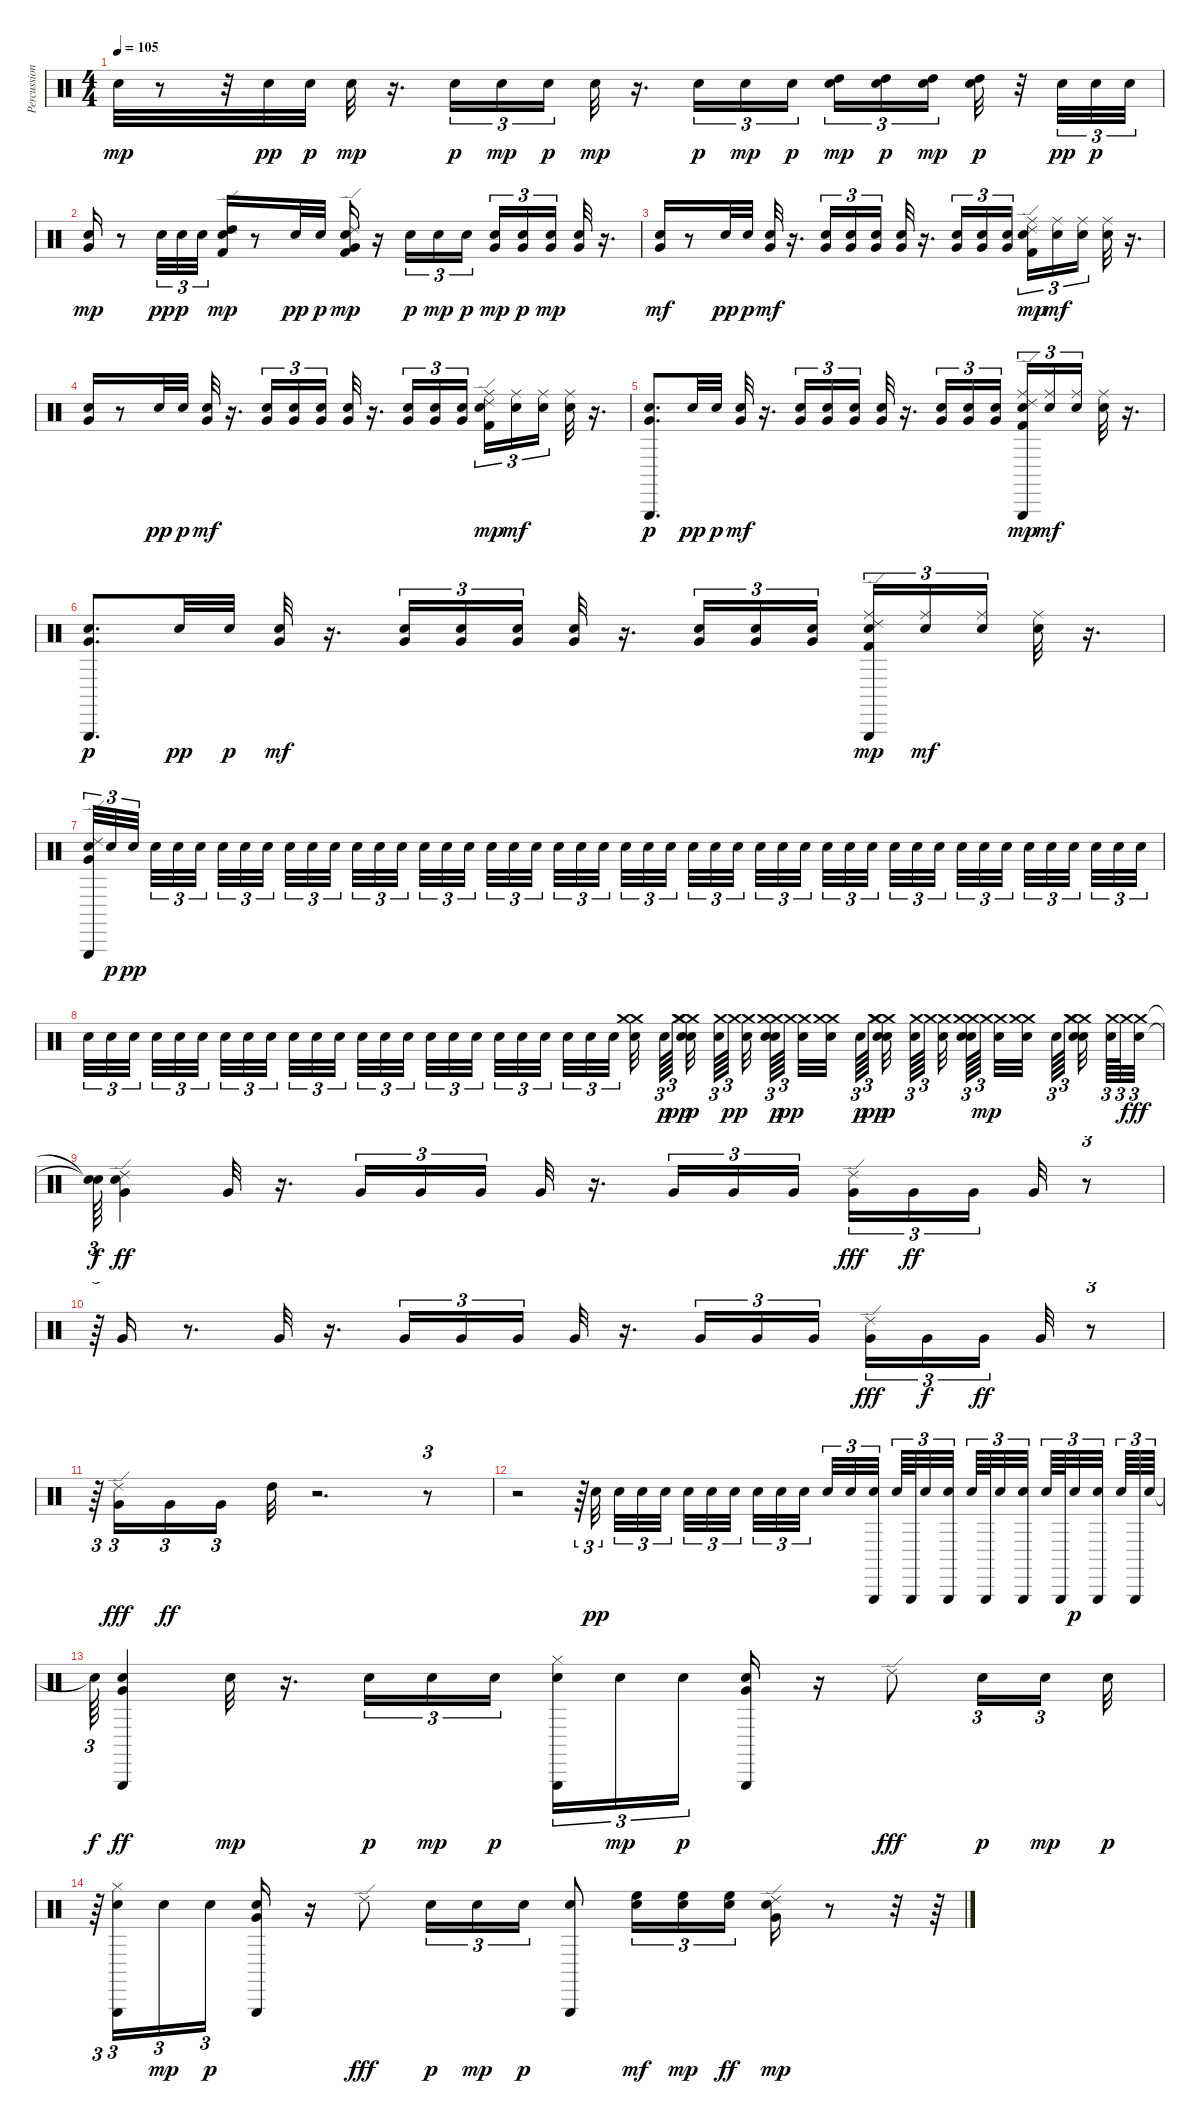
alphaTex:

\track ("Percussion" "Percussion") {instrument percussion}
\staff {score}
\articulation defaults
\ts (4 4)
\tempo 105
\clef neutral
\ks c "Snare (hit) 2".32{dy mp}
r.8 r.32 "Snare (hit) 2".32{dy pp} "Snare (hit) 2".32{dy p} "Snare (hit) 2".32{dy mp} r.16{d} "Snare (hit) 2".16{tu (3 2) dy p} "Snare (hit) 2".16{tu (3 2) dy mp} "Snare (hit) 2".16{tu (3 2) dy p} "Snare (hit) 2".32{dy mp} r.16{d} "Snare (hit) 2".16{tu (3 2) dy p} "Snare (hit) 2".16{tu (3 2) dy mp} "Snare (hit) 2".16{tu (3 2) dy p} ("High Tom (hit)" "Snare (hit) 2").16{tu (3 2) dy mp} ("High Tom (hit)" "Snare (hit) 2").16{tu (3 2) dy p} ("High Tom (hit)" "Snare (hit) 2").16{tu (3 2) dy mp beam splitsecondary} ("High Tom (hit)" "Snare (hit) 2").32{dy p} r.32 "Snare (hit) 2".32{tu (3 2) dy pp} "Snare (hit) 2".32{tu (3 2) dy p} "Snare (hit) 2".32{tu (3 2)} |
("Very Low Tom (hit)" "Snare (hit) 2").16{dy mp} r.8 "Snare (hit) 2".32{tu (3 2) dy pp} "Snare (hit) 2".32{tu (3 2) dy p} "Snare (hit) 2".32{tu (3 2)} ("High Tom (hit)" "Ride (edge) 2" "Snare (hit) 2" "Kick (hit) 2").16{dy mp} r.8 "Snare (hit) 2".32{dy pp} "Snare (hit) 2".32{dy p} ("Very Low Tom (hit)" "Ride (edge) 2" "Kick (hit) 2" "Snare (hit) 2").16{dy mp} r.16 "Snare (hit) 2".16{tu (3 2) dy p} "Snare (hit) 2".16{tu (3 2) dy mp} "Snare (hit) 2".16{tu (3 2) dy p} ("Very Low Tom (hit)" "Snare (hit) 2").16{tu (3 2) dy mp} ("Very Low Tom (hit)" "Snare (hit) 2").16{tu (3 2) dy p} ("Very Low Tom (hit)" "Snare (hit) 2").16{tu (3 2) dy mp beam splitsecondary} ("Very Low Tom (hit)" "Snare (hit) 2").32 r.16{d} |
("Snare (hit) 2" "Very Low Tom (hit)").16{dy mf} r.8 "Snare (hit) 2".32{dy pp} "Snare (hit) 2".32{dy p} ("Snare (hit) 2" "Very Low Tom (hit)").32{dy mf} r.16{d} ("Snare (hit) 2" "Very Low Tom (hit)").16{tu (3 2)} ("Snare (hit) 2" "Very Low Tom (hit)").16{tu (3 2)} ("Snare (hit) 2" "Very Low Tom (hit)").16{tu (3 2)} ("Snare (hit) 2" "Very Low Tom (hit)").32 r.16{d} ("Snare (hit) 2" "Very Low Tom (hit)").16{tu (3 2)} ("Snare (hit) 2" "Very Low Tom (hit)").16{tu (3 2)} ("Snare (hit) 2" "Very Low Tom (hit)").16{tu (3 2)} ("Snare (hit) 2" "Ride (edge) 2" "Ride (middle)" "Kick (hit) 2").16{tu (3 2) dy mp} ("Snare (hit) 2" "Ride (middle)").16{tu (3 2) dy mf} ("Snare (hit) 2" "Ride (middle)").16{tu (3 2) beam splitsecondary} ("Snare (hit) 2" "Ride (middle)").32 r.16{d} |
("Snare (hit) 2" "Very Low Tom (hit)").16 r.8 "Snare (hit) 2".32{dy pp} "Snare (hit) 2".32{dy p} ("Snare (hit) 2" "Very Low Tom (hit)").32{dy mf} r.16{d} ("Snare (hit) 2" "Very Low Tom (hit)").16{tu (3 2)} ("Snare (hit) 2" "Very Low Tom (hit)").16{tu (3 2)} ("Snare (hit) 2" "Very Low Tom (hit)").16{tu (3 2)} ("Snare (hit) 2" "Very Low Tom (hit)").32 r.16{d} ("Snare (hit) 2" "Very Low Tom (hit)").16{tu (3 2)} ("Snare (hit) 2" "Very Low Tom (hit)").16{tu (3 2)} ("Snare (hit) 2" "Very Low Tom (hit)").16{tu (3 2)} ("Snare (hit) 2" "Ride (edge) 2" "Ride (middle)" "Kick (hit) 2").16{tu (3 2) dy mp} ("Snare (hit) 2" "Ride (middle)").16{tu (3 2) dy mf} ("Snare (hit) 2" "Ride (middle)").16{tu (3 2) beam splitsecondary} ("Snare (hit) 2" "Ride (middle)").32 r.16{d} |
("Snare (hit) 2" "Very Low Tom (hit)" "Triangle (hit)").8{d dy p} "Snare (hit) 2".32{dy pp} "Snare (hit) 2".32{dy p} ("Snare (hit) 2" "Very Low Tom (hit)").32{dy mf} r.16{d} ("Snare (hit) 2" "Very Low Tom (hit)").16{tu (3 2)} ("Snare (hit) 2" "Very Low Tom (hit)").16{tu (3 2)} ("Snare (hit) 2" "Very Low Tom (hit)").16{tu (3 2)} ("Snare (hit) 2" "Very Low Tom (hit)").32 r.16{d} ("Snare (hit) 2" "Very Low Tom (hit)").16{tu (3 2)} ("Snare (hit) 2" "Very Low Tom (hit)").16{tu (3 2)} ("Snare (hit) 2" "Very Low Tom (hit)").16{tu (3 2)} ("Snare (hit) 2" "Ride (edge) 2" "Ride (middle)" "Triangle (hit)" "Kick (hit) 2").16{tu (3 2) dy mp} ("Snare (hit) 2" "Ride (middle)").16{tu (3 2) dy mf} ("Snare (hit) 2" "Ride (middle)").16{tu (3 2) beam splitsecondary} ("Snare (hit) 2" "Ride (middle)").32 r.16{d} |
("Snare (hit) 2" "Very Low Tom (hit)" "Triangle (hit)").8{d dy p} "Snare (hit) 2".32{dy pp} "Snare (hit) 2".32{dy p} ("Snare (hit) 2" "Very Low Tom (hit)").32{dy mf} r.16{d} ("Snare (hit) 2" "Very Low Tom (hit)").16{tu (3 2)} ("Snare (hit) 2" "Very Low Tom (hit)").16{tu (3 2)} ("Snare (hit) 2" "Very Low Tom (hit)").16{tu (3 2)} ("Snare (hit) 2" "Very Low Tom (hit)").32 r.16{d} ("Snare (hit) 2" "Very Low Tom (hit)").16{tu (3 2)} ("Snare (hit) 2" "Very Low Tom (hit)").16{tu (3 2)} ("Snare (hit) 2" "Very Low Tom (hit)").16{tu (3 2)} ("Snare (hit) 2" "Ride (edge) 2" "Ride (middle)" "Triangle (hit)" "Kick (hit) 2").16{tu (3 2) dy mp} ("Snare (hit) 2" "Ride (middle)").16{tu (3 2) dy mf} ("Snare (hit) 2" "Ride (middle)").16{tu (3 2) beam splitsecondary} ("Snare (hit) 2" "Ride (middle)").32 r.16{d} |
("Triangle (hit)" "Ride (edge) 2" "Very Low Tom (hit)" "Snare (hit) 2").32{tu (3 2)} "Snare (hit) 2".32{tu (3 2) dy p} "Snare (hit) 2".32{tu (3 2) dy pp beam splitsecondary} "Snare (hit) 2".32{tu (3 2)} "Snare (hit) 2".32{tu (3 2)} "Snare (hit) 2".32{tu (3 2) beam splitsecondary} "Snare (hit) 2".32{tu (3 2)} "Snare (hit) 2".32{tu (3 2)} "Snare (hit) 2".32{tu (3 2) beam splitsecondary} "Snare (hit) 2".32{tu (3 2)} "Snare (hit) 2".32{tu (3 2)} "Snare (hit) 2".32{tu (3 2)} "Snare (hit) 2".32{tu (3 2)} "Snare (hit) 2".32{tu (3 2)} "Snare (hit) 2".32{tu (3 2) beam splitsecondary} "Snare (hit) 2".32{tu (3 2)} "Snare (hit) 2".32{tu (3 2)} "Snare (hit) 2".32{tu (3 2) beam splitsecondary} "Snare (hit) 2".32{tu (3 2)} "Snare (hit) 2".32{tu (3 2)} "Snare (hit) 2".32{tu (3 2) beam splitsecondary} "Snare (hit) 2".32{tu (3 2)} "Snare (hit) 2".32{tu (3 2)} "Snare (hit) 2".32{tu (3 2)} "Snare (hit) 2".32{tu (3 2)} "Snare (hit) 2".32{tu (3 2)} "Snare (hit) 2".32{tu (3 2) beam splitsecondary} "Snare (hit) 2".32{tu (3 2)} "Snare (hit) 2".32{tu (3 2)} "Snare (hit) 2".32{tu (3 2) beam splitsecondary} "Snare (hit) 2".32{tu (3 2)} "Snare (hit) 2".32{tu (3 2)} "Snare (hit) 2".32{tu (3 2) beam splitsecondary} "Snare (hit) 2".32{tu (3 2)} "Snare (hit) 2".32{tu (3 2)} "Snare (hit) 2".32{tu (3 2)} "Snare (hit) 2".32{tu (3 2)} "Snare (hit) 2".32{tu (3 2)} "Snare (hit) 2".32{tu (3 2) beam splitsecondary} "Snare (hit) 2".32{tu (3 2)} "Snare (hit) 2".32{tu (3 2)} "Snare (hit) 2".32{tu (3 2) beam splitsecondary} "Snare (hit) 2".32{tu (3 2)} "Snare (hit) 2".32{tu (3 2)} "Snare (hit) 2".32{tu (3 2) beam splitsecondary} "Snare (hit) 2".32{tu (3 2)} "Snare (hit) 2".32{tu (3 2)} "Snare (hit) 2".32{tu (3 2)} |
"Snare (hit) 2".32{tu (3 2)} "Snare (hit) 2".32{tu (3 2)} "Snare (hit) 2".32{tu (3 2) beam splitsecondary} "Snare (hit) 2".32{tu (3 2)} "Snare (hit) 2".32{tu (3 2)} "Snare (hit) 2".32{tu (3 2) beam splitsecondary} "Snare (hit) 2".32{tu (3 2)} "Snare (hit) 2".32{tu (3 2)} "Snare (hit) 2".32{tu (3 2) beam splitsecondary} "Snare (hit) 2".32{tu (3 2)} "Snare (hit) 2".32{tu (3 2)} "Snare (hit) 2".32{tu (3 2)} "Snare (hit) 2".32{tu (3 2)} "Snare (hit) 2".32{tu (3 2)} "Snare (hit) 2".32{tu (3 2) beam splitsecondary} "Snare (hit) 2".32{tu (3 2)} "Snare (hit) 2".32{tu (3 2)} "Snare (hit) 2".32{tu (3 2) beam splitsecondary} "Snare (hit) 2".32{tu (3 2)} "Snare (hit) 2".32{tu (3 2)} "Snare (hit) 2".32{tu (3 2) beam splitsecondary} "Snare (hit) 2".32{tu (3 2)} "Snare (hit) 2".32{tu (3 2)} "Snare (hit) 2".32{tu (3 2)} ("Crash medium (hit)" "Snare (hit) 2" "Crash medium (hit)").32{beam splitsecondary} "Snare (hit) 2".64{tu (3 2) dy p} "Crash medium (hit)".64{tu (3 2) dy pp beam splitsecondary} ("Snare (hit) 2" "Crash medium (hit)" "Crash medium (hit)" "Snare (hit) 2").32{dy p beam splitsecondary} ("Crash medium (hit)" "Snare (hit) 2").64{tu (3 2)} "Crash medium (hit)".64{tu (3 2) dy pp beam splitsecondary} ("Snare (hit) 2" "Crash medium (hit)").32{beam splitsecondary} ("Crash medium (hit)" "Snare (hit) 2" "Crash medium (hit)" "Snare (hit) 2").64{tu (3 2) dy p} "Crash medium (hit)".64{tu (3 2) dy pp beam splitsecondary} ("Snare (hit) 2" "Crash medium (hit)").32 ("Crash medium (hit)" "Snare (hit) 2" "Crash medium (hit)").32{beam splitsecondary} "Snare (hit) 2".64{tu (3 2) dy p} "Crash medium (hit)".64{tu (3 2) dy pp beam splitsecondary} ("Snare (hit) 2" "Crash medium (hit)" "Crash medium (hit)" "Snare (hit) 2").32{dy p} ("Crash medium (hit)" "Snare (hit) 2").64{tu (3 2)} "Crash medium (hit)".64{tu (3 2) beam splitsecondary} ("Snare (hit) 2" "Crash medium (hit)").32{beam splitsecondary} ("Crash medium (hit)" "Snare (hit) 2" "Crash medium (hit)" "Snare (hit) 2").64{tu (3 2)} "Crash medium (hit)".64{tu (3 2) dy mp beam splitsecondary} ("Snare (hit) 2" "Crash medium (hit)").32 ("Crash medium (hit)" "Snare (hit) 2" "Crash medium (hit)").32{beam splitsecondary} "Snare (hit) 2".64{tu (3 2)} "Crash medium (hit)".64{tu (3 2) beam splitsecondary} ("Snare (hit) 2" "Crash medium (hit)" "Crash medium (hit)" "Snare (hit) 2").32{beam splitsecondary} ("Crash medium (hit)" "Snare (hit) 2").64{tu (3 2)} "Crash medium (hit)".64{tu (3 2) dy f} ("Snare (hit) 2" "Crash medium (hit)").32{tu (3 2) dy ff} |
("Snare (hit)"{t} "Snare (hit)"{t}).64{tu (3 2) dy f} ("Ride (edge) 2" "Snare (hit) 2" "Very Low Tom (hit)").4{dy ff} "Very Low Tom (hit)".32 r.16{d} "Very Low Tom (hit)".16{tu (3 2)} "Very Low Tom (hit)".16{tu (3 2)} "Very Low Tom (hit)".16{tu (3 2)} "Very Low Tom (hit)".32 r.16{d} "Very Low Tom (hit)".16{tu (3 2)} "Very Low Tom (hit)".16{tu (3 2)} "Very Low Tom (hit)".16{tu (3 2)} ("Very Low Tom (hit)" "Ride (edge) 2").16{tu (3 2) dy fff} "Very Low Tom (hit)".16{tu (3 2) dy ff} "Very Low Tom (hit)".16{tu (3 2) beam splitsecondary} "Very Low Tom (hit)".32 r.8{tu (3 2)} |
r.64{tu (3 2)} "Very Low Tom (hit)".16 r.8{d} "Very Low Tom (hit)".32 r.16{d} "Very Low Tom (hit)".16{tu (3 2)} "Very Low Tom (hit)".16{tu (3 2)} "Very Low Tom (hit)".16{tu (3 2)} "Very Low Tom (hit)".32 r.16{d} "Very Low Tom (hit)".16{tu (3 2)} "Very Low Tom (hit)".16{tu (3 2)} "Very Low Tom (hit)".16{tu (3 2)} ("Very Low Tom (hit)" "Ride (edge) 2").16{tu (3 2) dy fff} "Very Low Tom (hit)".16{tu (3 2) dy f} "Very Low Tom (hit)".16{tu (3 2) dy ff beam splitsecondary} "Very Low Tom (hit)".32 r.8{tu (3 2)} |
r.64{tu (3 2)} ("Very Low Tom (hit)" "Ride (edge) 2").16{tu (3 2) dy fff} "Very Low Tom (hit)".16{tu (3 2) dy ff} "Very Low Tom (hit)".16{tu (3 2) beam splitsecondary} "High Tom (hit)".32 r.2{d} r.8{tu (3 2)} |
r.2 r.64{tu (3 2)} "Snare (hit) 2".32{tu (3 2) dy pp beam splitsecondary} "Snare (hit) 2".32{tu (3 2)} "Snare (hit) 2".32{tu (3 2)} "Snare (hit) 2".32{tu (3 2) beam splitsecondary} "Snare (hit) 2".32{tu (3 2)} "Snare (hit) 2".32{tu (3 2)} "Snare (hit) 2".32{tu (3 2) beam splitsecondary} "Snare (hit) 2".32{tu (3 2)} "Snare (hit) 2".32{tu (3 2)} "Snare (hit) 2".32{tu (3 2) beam splitsecondary} "Snare (hit) 2".32{tu (3 2)} "Snare (hit) 2".32{tu (3 2)} ("Snare (hit) 2" "Triangle (hit)").32{tu (3 2) beam splitsecondary} "Snare (hit) 2".64{tu (3 2)} "Triangle (hit)".64{tu (3 2)} "Snare (hit) 2".32{tu (3 2)} ("Snare (hit) 2" "Triangle (hit)").32{tu (3 2) beam splitsecondary} "Snare (hit) 2".64{tu (3 2)} "Triangle (hit)".64{tu (3 2)} "Snare (hit) 2".32{tu (3 2)} ("Snare (hit) 2" "Triangle (hit)").32{tu (3 2) beam splitsecondary} "Snare (hit) 2".64{tu (3 2)} "Triangle (hit)".64{tu (3 2)} "Snare (hit) 2".32{tu (3 2) dy p} ("Snare (hit) 2" "Triangle (hit)").32{tu (3 2) beam splitsecondary} "Snare (hit) 2".64{tu (3 2)} "Triangle (hit)".64{tu (3 2)} "Snare (hit) 2".64{tu (3 2)} |
"Snare (hit)"{t}.64{tu (3 2) dy f} ("Snare (hit) 2" "Triangle (hit)" "Very Low Tom (hit)").4{dy ff} "Snare (hit) 2".32{dy mp} r.16{d} "Snare (hit) 2".16{tu (3 2) dy p} "Snare (hit) 2".16{tu (3 2) dy mp} "Snare (hit) 2".16{tu (3 2) dy p} ("Snare (hit) 2" "Triangle (hit)" "Hi-Hat (closed)").16{tu (3 2)} "Snare (hit) 2".16{tu (3 2) dy mp} "Snare (hit) 2".16{tu (3 2) dy p beam splitsecondary} ("Snare (hit) 2" "Triangle (hit)" "Very Low Tom (hit)").16 r.16 "Ride (edge) 2".8{dy fff} "Snare (hit) 2".16{tu (3 2) dy p} "Snare (hit) 2".16{tu (3 2) dy mp beam splitsecondary} "Snare (hit) 2".32{dy p} |
r.64{tu (3 2)} ("Snare (hit) 2" "Triangle (hit)" "Hi-Hat (closed)").16{tu (3 2)} "Snare (hit) 2".16{tu (3 2) dy mp} "Snare (hit) 2".16{tu (3 2) dy p beam splitsecondary} ("Snare (hit) 2" "Triangle (hit)" "Very Low Tom (hit)").16 r.16 "Ride (edge) 2".8{dy fff} "Snare (hit) 2".16{tu (3 2) dy p} "Snare (hit) 2".16{tu (3 2) dy mp} "Snare (hit) 2".16{tu (3 2) dy p} ("Snare (hit) 2" "Triangle (hit)").8 ("Snare (hit) 2" "High Floor Tom (hit)").16{tu (3 2) dy mf} ("Snare (hit) 2" "High Floor Tom (hit)").16{tu (3 2) dy mp} ("Snare (hit) 2" "High Floor Tom (hit)").16{tu (3 2) dy ff} ("Ride (edge) 2" "Very Low Tom (hit)" "Snare (hit) 2").16{dy mp} r.8 r.32 r.64
